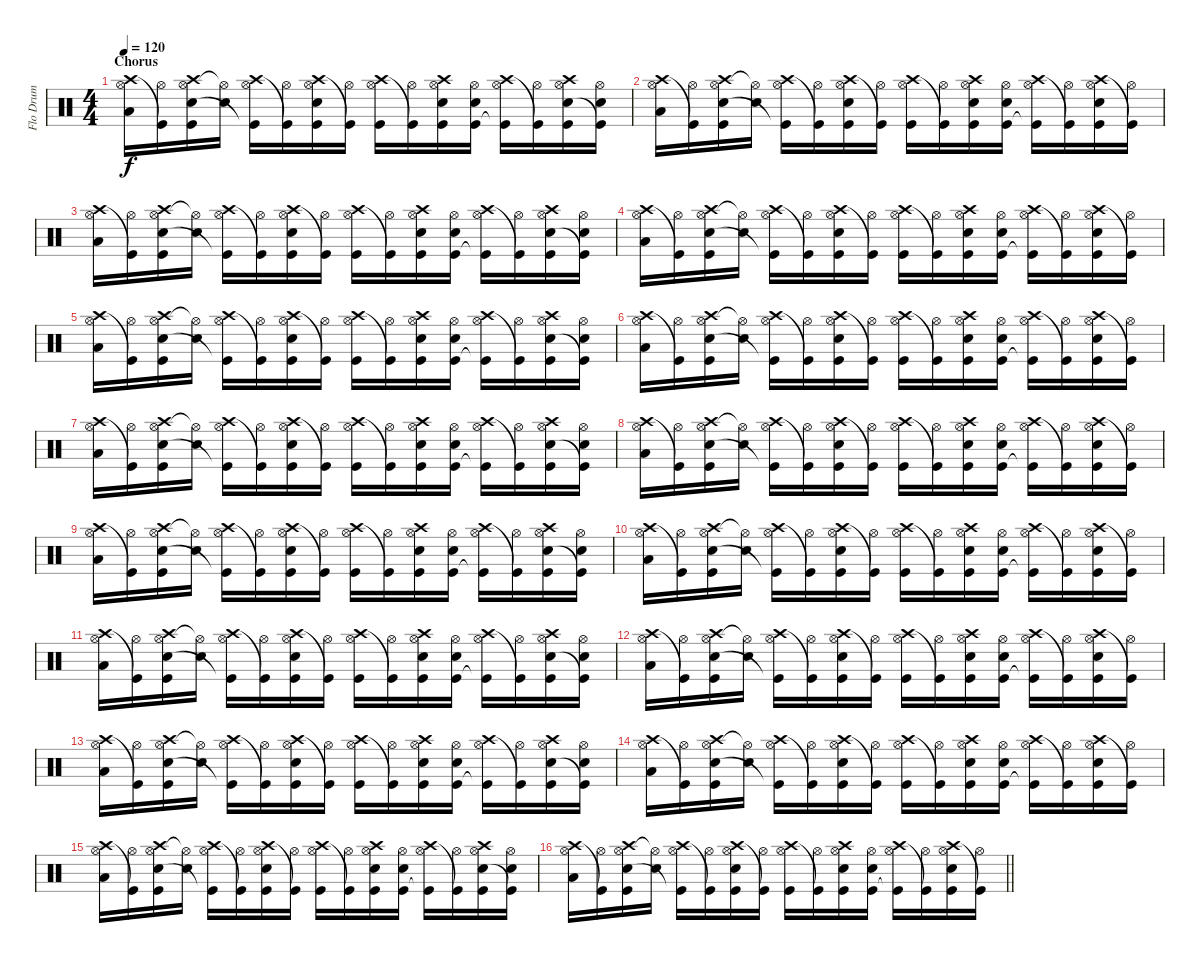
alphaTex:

\track ("Flo Drum" "Flo Drum") {instrument percussion}
\staff {score}
\articulation defaults
\ts (4 4)
\section ("" "Chorus")
\tempo 120
\clef neutral
\ks c
("Hi-Hat (open)" "Crash high (hit)" "Low Floor Tom (hit)").16{dy f volume 12} ("Hi-Hat (open)" "Kick (hit)"{t}).16 ("Hi-Hat (open)" "Crash high (hit)" "Snare (hit) 2" "Kick (hit)").16 ("Hi-Hat (open)"{t} "Snare (hit) 2").16 ("Hi-Hat (open)" "Crash high (hit)" "Kick (hit)"{t}).16 ("Hi-Hat (open)" "Kick (hit)"{t}).16 ("Hi-Hat (open)" "Crash high (hit)" "Snare (hit) 2" "Kick (hit)").16 ("Hi-Hat (open)" "Kick (hit)"{t}).16 ("Hi-Hat (open)" "Crash high (hit)" "Kick (hit)").16 ("Hi-Hat (open)" "Kick (hit)"{t}).16 ("Hi-Hat (open)" "Crash high (hit)" "Snare (hit) 2" "Kick (hit)").16 ("Hi-Hat (open)" "Snare (hit) 2" "Kick (hit)").16 ("Hi-Hat (open)" "Crash high (hit)" "Kick (hit)"{t}).16 ("Hi-Hat (open)" "Kick (hit)"{t}).16 ("Hi-Hat (open)" "Crash high (hit)" "Snare (hit) 2" "Kick (hit)").16 ("Hi-Hat (open)" "Snare (hit) 2" "Kick (hit)"{t}).16 |
("Hi-Hat (open)" "Crash high (hit)" "Low Floor Tom (hit)").16 ("Hi-Hat (open)" "Kick (hit)"{t}).16 ("Hi-Hat (open)" "Crash high (hit)" "Snare (hit) 2" "Kick (hit)").16 ("Hi-Hat (open)"{t} "Snare (hit) 2").16 ("Hi-Hat (open)" "Crash high (hit)" "Kick (hit)"{t}).16 ("Hi-Hat (open)" "Kick (hit)"{t}).16 ("Hi-Hat (open)" "Crash high (hit)" "Snare (hit) 2" "Kick (hit)").16 ("Hi-Hat (open)" "Kick (hit)"{t}).16 ("Hi-Hat (open)" "Crash high (hit)" "Kick (hit)").16 ("Hi-Hat (open)" "Kick (hit)"{t}).16 ("Hi-Hat (open)" "Crash high (hit)" "Snare (hit) 2" "Kick (hit)").16 ("Hi-Hat (open)" "Snare (hit) 2" "Kick (hit)").16 ("Hi-Hat (open)" "Crash high (hit)" "Kick (hit)"{t}).16 ("Hi-Hat (open)" "Kick (hit)"{t}).16 ("Hi-Hat (open)" "Crash high (hit)" "Snare (hit) 2" "Kick (hit)").16 ("Hi-Hat (open)" "Kick (hit)"{t}).16 |
("Hi-Hat (open)" "Crash high (hit)" "Low Floor Tom (hit)").16 ("Hi-Hat (open)" "Kick (hit)"{t}).16 ("Hi-Hat (open)" "Crash high (hit)" "Snare (hit) 2" "Kick (hit)").16 ("Hi-Hat (open)"{t} "Snare (hit) 2").16 ("Hi-Hat (open)" "Crash high (hit)" "Kick (hit)"{t}).16 ("Hi-Hat (open)" "Kick (hit)"{t}).16 ("Hi-Hat (open)" "Crash high (hit)" "Snare (hit) 2" "Kick (hit)").16 ("Hi-Hat (open)" "Kick (hit)"{t}).16 ("Hi-Hat (open)" "Crash high (hit)" "Kick (hit)").16 ("Hi-Hat (open)" "Kick (hit)"{t}).16 ("Hi-Hat (open)" "Crash high (hit)" "Snare (hit) 2" "Kick (hit)").16 ("Hi-Hat (open)" "Snare (hit) 2" "Kick (hit)").16 ("Hi-Hat (open)" "Crash high (hit)" "Kick (hit)"{t}).16 ("Hi-Hat (open)" "Kick (hit)"{t}).16 ("Hi-Hat (open)" "Crash high (hit)" "Snare (hit) 2" "Kick (hit)").16 ("Hi-Hat (open)" "Snare (hit) 2" "Kick (hit)"{t}).16 |
("Hi-Hat (open)" "Crash high (hit)" "Low Floor Tom (hit)").16 ("Hi-Hat (open)" "Kick (hit)"{t}).16 ("Hi-Hat (open)" "Crash high (hit)" "Snare (hit) 2" "Kick (hit)").16 ("Hi-Hat (open)"{t} "Snare (hit) 2").16 ("Hi-Hat (open)" "Crash high (hit)" "Kick (hit)"{t}).16 ("Hi-Hat (open)" "Kick (hit)"{t}).16 ("Hi-Hat (open)" "Crash high (hit)" "Snare (hit) 2" "Kick (hit)").16 ("Hi-Hat (open)" "Kick (hit)"{t}).16 ("Hi-Hat (open)" "Crash high (hit)" "Kick (hit)").16 ("Hi-Hat (open)" "Kick (hit)"{t}).16 ("Hi-Hat (open)" "Crash high (hit)" "Snare (hit) 2" "Kick (hit)").16 ("Hi-Hat (open)" "Snare (hit) 2" "Kick (hit)").16 ("Hi-Hat (open)" "Crash high (hit)" "Kick (hit)"{t}).16 ("Hi-Hat (open)" "Kick (hit)"{t}).16 ("Hi-Hat (open)" "Crash high (hit)" "Snare (hit) 2" "Kick (hit)").16 ("Hi-Hat (open)" "Kick (hit)"{t}).16 |
("Hi-Hat (open)" "Crash high (hit)" "Low Floor Tom (hit)").16{volume 12} ("Hi-Hat (open)" "Kick (hit)"{t}).16 ("Hi-Hat (open)" "Crash high (hit)" "Snare (hit) 2" "Kick (hit)").16 ("Hi-Hat (open)"{t} "Snare (hit) 2").16 ("Hi-Hat (open)" "Crash high (hit)" "Kick (hit)"{t}).16 ("Hi-Hat (open)" "Kick (hit)"{t}).16 ("Hi-Hat (open)" "Crash high (hit)" "Snare (hit) 2" "Kick (hit)").16 ("Hi-Hat (open)" "Kick (hit)"{t}).16 ("Hi-Hat (open)" "Crash high (hit)" "Kick (hit)").16 ("Hi-Hat (open)" "Kick (hit)"{t}).16 ("Hi-Hat (open)" "Crash high (hit)" "Snare (hit) 2" "Kick (hit)").16 ("Hi-Hat (open)" "Snare (hit) 2" "Kick (hit)").16 ("Hi-Hat (open)" "Crash high (hit)" "Kick (hit)"{t}).16 ("Hi-Hat (open)" "Kick (hit)"{t}).16 ("Hi-Hat (open)" "Crash high (hit)" "Snare (hit) 2" "Kick (hit)").16 ("Hi-Hat (open)" "Snare (hit) 2" "Kick (hit)"{t}).16 |
("Hi-Hat (open)" "Crash high (hit)" "Low Floor Tom (hit)").16 ("Hi-Hat (open)" "Kick (hit)"{t}).16 ("Hi-Hat (open)" "Crash high (hit)" "Snare (hit) 2" "Kick (hit)").16 ("Hi-Hat (open)"{t} "Snare (hit) 2").16 ("Hi-Hat (open)" "Crash high (hit)" "Kick (hit)"{t}).16 ("Hi-Hat (open)" "Kick (hit)"{t}).16 ("Hi-Hat (open)" "Crash high (hit)" "Snare (hit) 2" "Kick (hit)").16 ("Hi-Hat (open)" "Kick (hit)"{t}).16 ("Hi-Hat (open)" "Crash high (hit)" "Kick (hit)").16 ("Hi-Hat (open)" "Kick (hit)"{t}).16 ("Hi-Hat (open)" "Crash high (hit)" "Snare (hit) 2" "Kick (hit)").16 ("Hi-Hat (open)" "Snare (hit) 2" "Kick (hit)").16 ("Hi-Hat (open)" "Crash high (hit)" "Kick (hit)"{t}).16 ("Hi-Hat (open)" "Kick (hit)"{t}).16 ("Hi-Hat (open)" "Crash high (hit)" "Snare (hit) 2" "Kick (hit)").16 ("Hi-Hat (open)" "Kick (hit)"{t}).16 |
("Hi-Hat (open)" "Crash high (hit)" "Low Floor Tom (hit)").16 ("Hi-Hat (open)" "Kick (hit)"{t}).16 ("Hi-Hat (open)" "Crash high (hit)" "Snare (hit) 2" "Kick (hit)").16 ("Hi-Hat (open)"{t} "Snare (hit) 2").16 ("Hi-Hat (open)" "Crash high (hit)" "Kick (hit)"{t}).16 ("Hi-Hat (open)" "Kick (hit)"{t}).16 ("Hi-Hat (open)" "Crash high (hit)" "Snare (hit) 2" "Kick (hit)").16 ("Hi-Hat (open)" "Kick (hit)"{t}).16 ("Hi-Hat (open)" "Crash high (hit)" "Kick (hit)").16 ("Hi-Hat (open)" "Kick (hit)"{t}).16 ("Hi-Hat (open)" "Crash high (hit)" "Snare (hit) 2" "Kick (hit)").16 ("Hi-Hat (open)" "Snare (hit) 2" "Kick (hit)").16 ("Hi-Hat (open)" "Crash high (hit)" "Kick (hit)"{t}).16 ("Hi-Hat (open)" "Kick (hit)"{t}).16 ("Hi-Hat (open)" "Crash high (hit)" "Snare (hit) 2" "Kick (hit)").16 ("Hi-Hat (open)" "Snare (hit) 2" "Kick (hit)"{t}).16 |
("Hi-Hat (open)" "Crash high (hit)" "Low Floor Tom (hit)").16 ("Hi-Hat (open)" "Kick (hit)"{t}).16 ("Hi-Hat (open)" "Crash high (hit)" "Snare (hit) 2" "Kick (hit)").16 ("Hi-Hat (open)"{t} "Snare (hit) 2").16 ("Hi-Hat (open)" "Crash high (hit)" "Kick (hit)"{t}).16 ("Hi-Hat (open)" "Kick (hit)"{t}).16 ("Hi-Hat (open)" "Crash high (hit)" "Snare (hit) 2" "Kick (hit)").16 ("Hi-Hat (open)" "Kick (hit)"{t}).16 ("Hi-Hat (open)" "Crash high (hit)" "Kick (hit)").16 ("Hi-Hat (open)" "Kick (hit)"{t}).16 ("Hi-Hat (open)" "Crash high (hit)" "Snare (hit) 2" "Kick (hit)").16 ("Hi-Hat (open)" "Snare (hit) 2" "Kick (hit)").16 ("Hi-Hat (open)" "Crash high (hit)" "Kick (hit)"{t}).16 ("Hi-Hat (open)" "Kick (hit)"{t}).16 ("Hi-Hat (open)" "Crash high (hit)" "Snare (hit) 2" "Kick (hit)").16 ("Hi-Hat (open)" "Kick (hit)"{t}).16 |
("Hi-Hat (open)" "Crash high (hit)" "Low Floor Tom (hit)").16{volume 12} ("Hi-Hat (open)" "Kick (hit)"{t}).16 ("Hi-Hat (open)" "Crash high (hit)" "Snare (hit) 2" "Kick (hit)").16 ("Hi-Hat (open)"{t} "Snare (hit) 2").16 ("Hi-Hat (open)" "Crash high (hit)" "Kick (hit)"{t}).16 ("Hi-Hat (open)" "Kick (hit)"{t}).16 ("Hi-Hat (open)" "Crash high (hit)" "Snare (hit) 2" "Kick (hit)").16 ("Hi-Hat (open)" "Kick (hit)"{t}).16 ("Hi-Hat (open)" "Crash high (hit)" "Kick (hit)").16 ("Hi-Hat (open)" "Kick (hit)"{t}).16 ("Hi-Hat (open)" "Crash high (hit)" "Snare (hit) 2" "Kick (hit)").16 ("Hi-Hat (open)" "Snare (hit) 2" "Kick (hit)").16 ("Hi-Hat (open)" "Crash high (hit)" "Kick (hit)"{t}).16 ("Hi-Hat (open)" "Kick (hit)"{t}).16 ("Hi-Hat (open)" "Crash high (hit)" "Snare (hit) 2" "Kick (hit)").16 ("Hi-Hat (open)" "Snare (hit) 2" "Kick (hit)"{t}).16 |
("Hi-Hat (open)" "Crash high (hit)" "Low Floor Tom (hit)").16 ("Hi-Hat (open)" "Kick (hit)"{t}).16 ("Hi-Hat (open)" "Crash high (hit)" "Snare (hit) 2" "Kick (hit)").16 ("Hi-Hat (open)"{t} "Snare (hit) 2").16 ("Hi-Hat (open)" "Crash high (hit)" "Kick (hit)"{t}).16 ("Hi-Hat (open)" "Kick (hit)"{t}).16 ("Hi-Hat (open)" "Crash high (hit)" "Snare (hit) 2" "Kick (hit)").16 ("Hi-Hat (open)" "Kick (hit)"{t}).16 ("Hi-Hat (open)" "Crash high (hit)" "Kick (hit)").16 ("Hi-Hat (open)" "Kick (hit)"{t}).16 ("Hi-Hat (open)" "Crash high (hit)" "Snare (hit) 2" "Kick (hit)").16 ("Hi-Hat (open)" "Snare (hit) 2" "Kick (hit)").16 ("Hi-Hat (open)" "Crash high (hit)" "Kick (hit)"{t}).16 ("Hi-Hat (open)" "Kick (hit)"{t}).16 ("Hi-Hat (open)" "Crash high (hit)" "Snare (hit) 2" "Kick (hit)").16 ("Hi-Hat (open)" "Kick (hit)"{t}).16 |
("Hi-Hat (open)" "Crash high (hit)" "Low Floor Tom (hit)").16 ("Hi-Hat (open)" "Kick (hit)"{t}).16 ("Hi-Hat (open)" "Crash high (hit)" "Snare (hit) 2" "Kick (hit)").16 ("Hi-Hat (open)"{t} "Snare (hit) 2").16 ("Hi-Hat (open)" "Crash high (hit)" "Kick (hit)"{t}).16 ("Hi-Hat (open)" "Kick (hit)"{t}).16 ("Hi-Hat (open)" "Crash high (hit)" "Snare (hit) 2" "Kick (hit)").16 ("Hi-Hat (open)" "Kick (hit)"{t}).16 ("Hi-Hat (open)" "Crash high (hit)" "Kick (hit)").16 ("Hi-Hat (open)" "Kick (hit)"{t}).16 ("Hi-Hat (open)" "Crash high (hit)" "Snare (hit) 2" "Kick (hit)").16 ("Hi-Hat (open)" "Snare (hit) 2" "Kick (hit)").16 ("Hi-Hat (open)" "Crash high (hit)" "Kick (hit)"{t}).16 ("Hi-Hat (open)" "Kick (hit)"{t}).16 ("Hi-Hat (open)" "Crash high (hit)" "Snare (hit) 2" "Kick (hit)").16 ("Hi-Hat (open)" "Snare (hit) 2" "Kick (hit)"{t}).16 |
("Hi-Hat (open)" "Crash high (hit)" "Low Floor Tom (hit)").16 ("Hi-Hat (open)" "Kick (hit)"{t}).16 ("Hi-Hat (open)" "Crash high (hit)" "Snare (hit) 2" "Kick (hit)").16 ("Hi-Hat (open)"{t} "Snare (hit) 2").16 ("Hi-Hat (open)" "Crash high (hit)" "Kick (hit)"{t}).16 ("Hi-Hat (open)" "Kick (hit)"{t}).16 ("Hi-Hat (open)" "Crash high (hit)" "Snare (hit) 2" "Kick (hit)").16 ("Hi-Hat (open)" "Kick (hit)"{t}).16 ("Hi-Hat (open)" "Crash high (hit)" "Kick (hit)").16 ("Hi-Hat (open)" "Kick (hit)"{t}).16 ("Hi-Hat (open)" "Crash high (hit)" "Snare (hit) 2" "Kick (hit)").16 ("Hi-Hat (open)" "Snare (hit) 2" "Kick (hit)").16 ("Hi-Hat (open)" "Crash high (hit)" "Kick (hit)"{t}).16 ("Hi-Hat (open)" "Kick (hit)"{t}).16 ("Hi-Hat (open)" "Crash high (hit)" "Snare (hit) 2" "Kick (hit)").16 ("Hi-Hat (open)" "Kick (hit)"{t}).16 |
("Hi-Hat (open)" "Crash high (hit)" "Low Floor Tom (hit)").16{volume 12} ("Hi-Hat (open)" "Kick (hit)"{t}).16 ("Hi-Hat (open)" "Crash high (hit)" "Snare (hit) 2" "Kick (hit)").16 ("Hi-Hat (open)"{t} "Snare (hit) 2").16 ("Hi-Hat (open)" "Crash high (hit)" "Kick (hit)"{t}).16 ("Hi-Hat (open)" "Kick (hit)"{t}).16 ("Hi-Hat (open)" "Crash high (hit)" "Snare (hit) 2" "Kick (hit)").16 ("Hi-Hat (open)" "Kick (hit)"{t}).16 ("Hi-Hat (open)" "Crash high (hit)" "Kick (hit)").16 ("Hi-Hat (open)" "Kick (hit)"{t}).16 ("Hi-Hat (open)" "Crash high (hit)" "Snare (hit) 2" "Kick (hit)").16 ("Hi-Hat (open)" "Snare (hit) 2" "Kick (hit)").16 ("Hi-Hat (open)" "Crash high (hit)" "Kick (hit)"{t}).16 ("Hi-Hat (open)" "Kick (hit)"{t}).16 ("Hi-Hat (open)" "Crash high (hit)" "Snare (hit) 2" "Kick (hit)").16 ("Hi-Hat (open)" "Snare (hit) 2" "Kick (hit)"{t}).16 |
("Hi-Hat (open)" "Crash high (hit)" "Low Floor Tom (hit)").16 ("Hi-Hat (open)" "Kick (hit)"{t}).16 ("Hi-Hat (open)" "Crash high (hit)" "Snare (hit) 2" "Kick (hit)").16 ("Hi-Hat (open)"{t} "Snare (hit) 2").16 ("Hi-Hat (open)" "Crash high (hit)" "Kick (hit)"{t}).16 ("Hi-Hat (open)" "Kick (hit)"{t}).16 ("Hi-Hat (open)" "Crash high (hit)" "Snare (hit) 2" "Kick (hit)").16 ("Hi-Hat (open)" "Kick (hit)"{t}).16 ("Hi-Hat (open)" "Crash high (hit)" "Kick (hit)").16 ("Hi-Hat (open)" "Kick (hit)"{t}).16 ("Hi-Hat (open)" "Crash high (hit)" "Snare (hit) 2" "Kick (hit)").16 ("Hi-Hat (open)" "Snare (hit) 2" "Kick (hit)").16 ("Hi-Hat (open)" "Crash high (hit)" "Kick (hit)"{t}).16 ("Hi-Hat (open)" "Kick (hit)"{t}).16 ("Hi-Hat (open)" "Crash high (hit)" "Snare (hit) 2" "Kick (hit)").16 ("Hi-Hat (open)" "Kick (hit)"{t}).16 |
("Hi-Hat (open)" "Crash high (hit)" "Low Floor Tom (hit)").16 ("Hi-Hat (open)" "Kick (hit)"{t}).16 ("Hi-Hat (open)" "Crash high (hit)" "Snare (hit) 2" "Kick (hit)").16 ("Hi-Hat (open)"{t} "Snare (hit) 2").16 ("Hi-Hat (open)" "Crash high (hit)" "Kick (hit)"{t}).16 ("Hi-Hat (open)" "Kick (hit)"{t}).16 ("Hi-Hat (open)" "Crash high (hit)" "Snare (hit) 2" "Kick (hit)").16 ("Hi-Hat (open)" "Kick (hit)"{t}).16 ("Hi-Hat (open)" "Crash high (hit)" "Kick (hit)").16 ("Hi-Hat (open)" "Kick (hit)"{t}).16 ("Hi-Hat (open)" "Crash high (hit)" "Snare (hit) 2" "Kick (hit)").16 ("Hi-Hat (open)" "Snare (hit) 2" "Kick (hit)").16 ("Hi-Hat (open)" "Crash high (hit)" "Kick (hit)"{t}).16 ("Hi-Hat (open)" "Kick (hit)"{t}).16 ("Hi-Hat (open)" "Crash high (hit)" "Snare (hit) 2" "Kick (hit)").16 ("Hi-Hat (open)" "Snare (hit) 2" "Kick (hit)"{t}).16 |
\barLineRight lightlight
("Hi-Hat (open)" "Crash high (hit)" "Low Floor Tom (hit)").16 ("Hi-Hat (open)" "Kick (hit)"{t}).16 ("Hi-Hat (open)" "Crash high (hit)" "Snare (hit) 2" "Kick (hit)").16 ("Hi-Hat (open)"{t} "Snare (hit) 2").16 ("Hi-Hat (open)" "Crash high (hit)" "Kick (hit)"{t}).16 ("Hi-Hat (open)" "Kick (hit)"{t}).16 ("Hi-Hat (open)" "Crash high (hit)" "Snare (hit) 2" "Kick (hit)").16 ("Hi-Hat (open)" "Kick (hit)"{t}).16 ("Hi-Hat (open)" "Crash high (hit)" "Kick (hit)").16 ("Hi-Hat (open)" "Kick (hit)"{t}).16 ("Hi-Hat (open)" "Crash high (hit)" "Snare (hit) 2" "Kick (hit)").16 ("Hi-Hat (open)" "Snare (hit) 2" "Kick (hit)").16 ("Hi-Hat (open)" "Crash high (hit)" "Kick (hit)"{t}).16 ("Hi-Hat (open)" "Kick (hit)"{t}).16 ("Hi-Hat (open)" "Crash high (hit)" "Snare (hit) 2" "Kick (hit)").16 ("Hi-Hat (open)" "Kick (hit)"{t}).16
